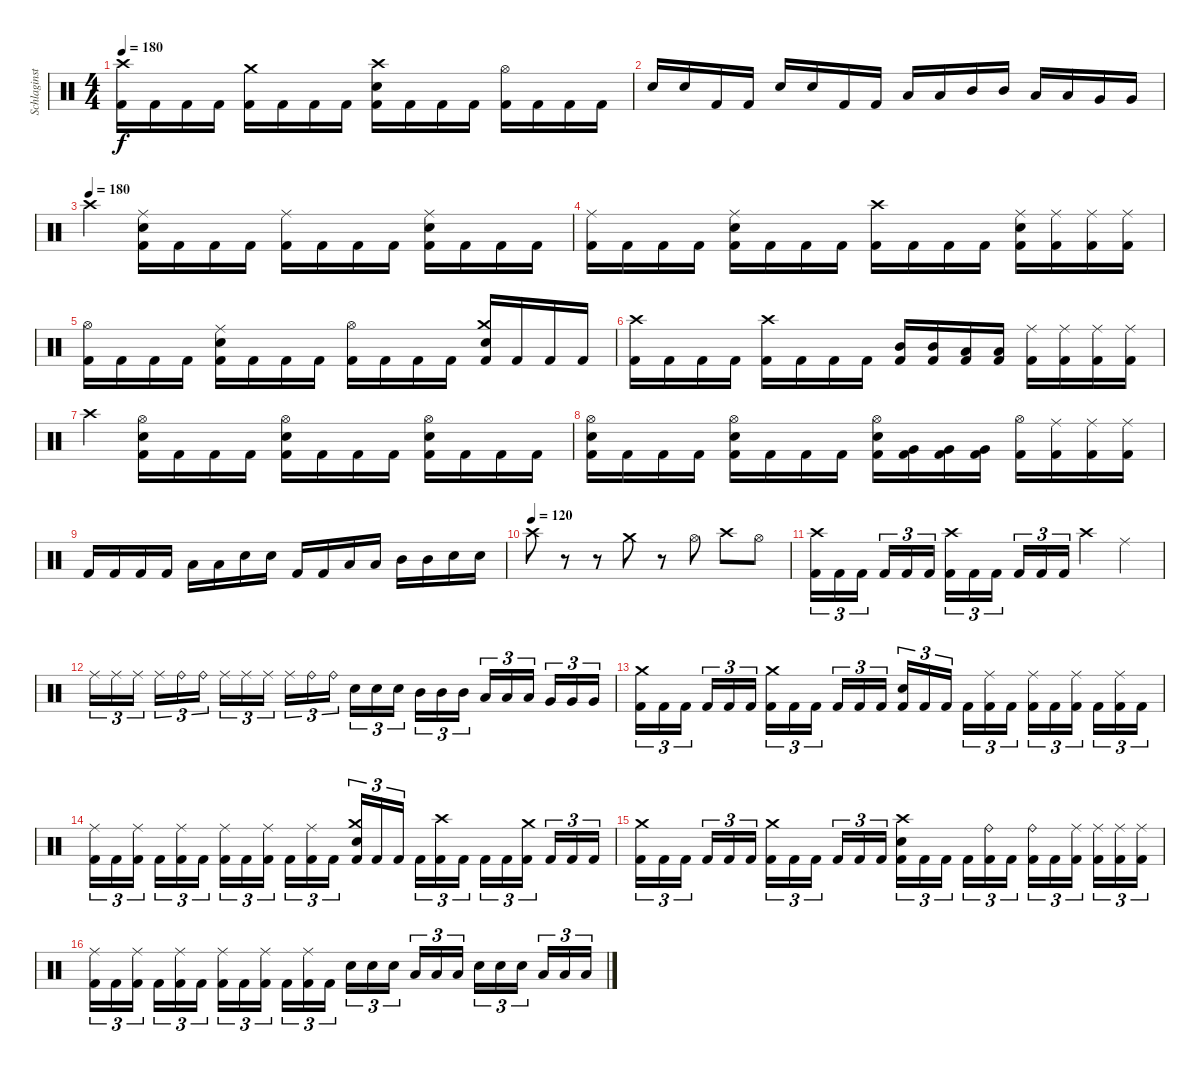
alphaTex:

\track ("Schlaginstrumente - Auswahl" "Schlaginst") {instrument percussion}
\staff {score}
\articulation defaults
\ts (4 4)
\tempo 180
\clef neutral
\ks c
("Crash high (hit)" "Kick (hit) 2").16{dy f} "Kick (hit) 2".16 "Kick (hit) 2".16 "Kick (hit) 2".16 ("Crash medium (hit)" "Kick (hit) 2").16 "Kick (hit) 2".16 "Kick (hit) 2".16 "Kick (hit) 2".16 ("Crash high (hit)" "Electric Snare (hit)" "Kick (hit) 2").16 "Kick (hit) 2".16 "Kick (hit) 2".16 "Kick (hit) 2".16 ("Hi-Hat (open)" "Kick (hit) 2").16 "Kick (hit) 2".16 "Kick (hit) 2".16 "Kick (hit) 2".16 |
"Electric Snare (hit)".16 "Electric Snare (hit)".16 "Kick (hit) 2".16 "Kick (hit) 2".16 "Electric Snare (hit)".16 "Electric Snare (hit)".16 "Kick (hit) 2".16 "Kick (hit) 2".16 "Low Tom (hit)".16 "Low Tom (hit)".16 "Mid Tom (hit)".16 "Mid Tom (hit)".16 "Low Tom (hit)".16 "Low Tom (hit)".16 "Very Low Tom (hit)".16 "Very Low Tom (hit)".16 |
\tempo (180)
"Crash high (hit)".4 ("Ride (middle)" "Electric Snare (hit)" "Kick (hit) 2").16 "Kick (hit) 2".16 "Kick (hit) 2".16 "Kick (hit) 2".16 ("Ride (middle)" "Kick (hit) 2").16 "Kick (hit) 2".16 "Kick (hit) 2".16 "Kick (hit) 2".16 ("Ride (middle)" "Electric Snare (hit)" "Kick (hit) 2").16 "Kick (hit) 2".16 "Kick (hit) 2".16 "Kick (hit) 2".16 |
("Ride (middle)" "Kick (hit) 2").16 "Kick (hit) 2".16 "Kick (hit) 2".16 "Kick (hit) 2".16 ("Ride (middle)" "Electric Snare (hit)" "Kick (hit) 2").16 "Kick (hit) 2".16 "Kick (hit) 2".16 "Kick (hit) 2".16 ("Crash high (hit)" "Kick (hit) 2").16 "Kick (hit) 2".16 "Kick (hit) 2".16 "Kick (hit) 2".16 ("Ride (middle)" "Electric Snare (hit)" "Kick (hit) 2").16 ("Ride (middle)" "Kick (hit) 2").16 ("Ride (middle)" "Kick (hit) 2").16 ("Ride (middle)" "Kick (hit) 2").16 |
("Hi-Hat (open)" "Kick (hit) 2").16 "Kick (hit) 2".16 "Kick (hit) 2".16 "Kick (hit) 2".16 ("Ride (middle)" "Electric Snare (hit)" "Kick (hit) 2").16 "Kick (hit) 2".16 "Kick (hit) 2".16 "Kick (hit) 2".16 ("Hi-Hat (open)" "Kick (hit) 2").16 "Kick (hit) 2".16 "Kick (hit) 2".16 "Kick (hit) 2".16 ("Crash medium (hit)" "Electric Snare (hit)" "Kick (hit) 2").16 "Kick (hit) 2".16 "Kick (hit) 2".16 "Kick (hit) 2".16 |
("Crash high (hit)" "Kick (hit) 2").16 "Kick (hit) 2".16 "Kick (hit) 2".16 "Kick (hit) 2".16 ("Crash high (hit)" "Kick (hit) 2").16 "Kick (hit) 2".16 "Kick (hit) 2".16 "Kick (hit) 2".16 ("Mid Tom (hit)" "Kick (hit) 2").16 ("Mid Tom (hit)" "Kick (hit) 2").16 ("Low Tom (hit)" "Kick (hit) 2").16 ("Low Tom (hit)" "Kick (hit) 2").16 ("Ride (middle)" "Kick (hit) 2").16 ("Ride (middle)" "Kick (hit) 2").16 ("Ride (middle)" "Kick (hit) 2").16 ("Ride (middle)" "Kick (hit) 2").16 |
"Crash high (hit)".4 ("Hi-Hat (open)" "Electric Snare (hit)" "Kick (hit) 2").16 "Kick (hit) 2".16 "Kick (hit) 2".16 "Kick (hit) 2".16 ("Hi-Hat (open)" "Electric Snare (hit)" "Kick (hit) 2").16 "Kick (hit) 2".16 "Kick (hit) 2".16 "Kick (hit) 2".16 ("Hi-Hat (open)" "Electric Snare (hit)" "Kick (hit) 2").16 "Kick (hit) 2".16 "Kick (hit) 2".16 "Kick (hit) 2".16 |
("Hi-Hat (open)" "Electric Snare (hit)" "Kick (hit) 2").16 "Kick (hit) 2".16 "Kick (hit) 2".16 "Kick (hit) 2".16 ("Hi-Hat (open)" "Electric Snare (hit)" "Kick (hit) 2").16 "Kick (hit) 2".16 "Kick (hit) 2".16 "Kick (hit) 2".16 ("Hi-Hat (open)" "Electric Snare (hit)" "Kick (hit) 2").16 ("Very Low Tom (hit)" "Kick (hit) 2").16 ("Very Low Tom (hit)" "Kick (hit) 2").16 ("Very Low Tom (hit)" "Kick (hit) 2").16 ("Hi-Hat (open)" "Kick (hit) 2").16 ("Ride (middle)" "Kick (hit) 2").16 ("Ride (middle)" "Kick (hit) 2").16 ("Ride (middle)" "Kick (hit) 2").16 |
"Kick (hit) 2".16 "Kick (hit) 2".16 "Kick (hit) 2".16 "Kick (hit) 2".16 "Low Tom (hit)".16 "Low Tom (hit)".16 "Electric Snare (hit)".16 "Electric Snare (hit)".16 "Kick (hit) 2".16 "Kick (hit) 2".16 "Low Tom (hit)".16 "Low Tom (hit)".16 "Mid Tom (hit)".16 "Mid Tom (hit)".16 "Electric Snare (hit)".16 "Electric Snare (hit)".16 |
\tempo (120)
"Crash high (hit)".8 r.8 r.8 "Crash medium (hit)".8 r.8 "Hi-Hat (open)".8 "Crash high (hit)".8 "Hi-Hat (open)".8 |
("Crash high (hit)" "Kick (hit) 2").16{tu (3 2)} "Kick (hit) 2".16{tu (3 2)} "Kick (hit) 2".16{tu (3 2) beam splitsecondary} "Kick (hit) 2".16{tu (3 2)} "Kick (hit) 2".16{tu (3 2)} "Kick (hit) 2".16{tu (3 2)} ("Crash high (hit)" "Kick (hit) 2").16{tu (3 2)} "Kick (hit) 2".16{tu (3 2)} "Kick (hit) 2".16{tu (3 2) beam splitsecondary} "Kick (hit) 2".16{tu (3 2)} "Kick (hit) 2".16{tu (3 2)} "Kick (hit) 2".16{tu (3 2)} "Crash high (hit)".4 "Ride (middle)".4 |
"Ride (middle)".16{tu (3 2)} "Ride (middle)".16{tu (3 2)} "Ride (middle)".16{tu (3 2) beam splitsecondary} "Ride (middle)".16{tu (3 2)} "Ride (bell)".16{tu (3 2)} "Ride (bell)".16{tu (3 2)} "Ride (middle)".16{tu (3 2)} "Ride (middle)".16{tu (3 2)} "Ride (middle)".16{tu (3 2) beam splitsecondary} "Ride (middle)".16{tu (3 2)} "Ride (bell)".16{tu (3 2)} "Ride (bell)".16{tu (3 2)} "Electric Snare (hit)".16{tu (3 2)} "Electric Snare (hit)".16{tu (3 2)} "Electric Snare (hit)".16{tu (3 2) beam splitsecondary} "Mid Tom (hit)".16{tu (3 2)} "Mid Tom (hit)".16{tu (3 2)} "Mid Tom (hit)".16{tu (3 2)} "Low Tom (hit)".16{tu (3 2)} "Low Tom (hit)".16{tu (3 2)} "Low Tom (hit)".16{tu (3 2) beam splitsecondary} "Very Low Tom (hit)".16{tu (3 2)} "Very Low Tom (hit)".16{tu (3 2)} "Very Low Tom (hit)".16{tu (3 2)} |
("Crash medium (hit)" "Kick (hit) 2").16{tu (3 2)} "Kick (hit) 2".16{tu (3 2)} "Kick (hit) 2".16{tu (3 2) beam splitsecondary} "Kick (hit) 2".16{tu (3 2)} "Kick (hit) 2".16{tu (3 2)} "Kick (hit) 2".16{tu (3 2)} ("Crash medium (hit)" "Kick (hit) 2").16{tu (3 2)} "Kick (hit) 2".16{tu (3 2)} "Kick (hit) 2".16{tu (3 2) beam splitsecondary} "Kick (hit) 2".16{tu (3 2)} "Kick (hit) 2".16{tu (3 2)} "Kick (hit) 2".16{tu (3 2)} ("Electric Snare (hit)" "Kick (hit) 2").16{tu (3 2)} "Kick (hit) 2".16{tu (3 2)} "Kick (hit) 2".16{tu (3 2) beam splitsecondary} "Kick (hit) 2".16{tu (3 2)} ("Ride (middle)" "Kick (hit) 2").16{tu (3 2)} "Kick (hit) 2".16{tu (3 2)} ("Ride (middle)" "Kick (hit) 2").16{tu (3 2)} "Kick (hit) 2".16{tu (3 2)} ("Ride (middle)" "Kick (hit) 2").16{tu (3 2) beam splitsecondary} "Kick (hit) 2".16{tu (3 2)} ("Ride (middle)" "Kick (hit) 2").16{tu (3 2)} "Kick (hit) 2".16{tu (3 2)} |
("Ride (middle)" "Kick (hit) 2").16{tu (3 2)} "Kick (hit) 2".16{tu (3 2)} ("Ride (middle)" "Kick (hit) 2").16{tu (3 2) beam splitsecondary} "Kick (hit) 2".16{tu (3 2)} ("Ride (middle)" "Kick (hit) 2").16{tu (3 2)} "Kick (hit) 2".16{tu (3 2)} ("Ride (middle)" "Kick (hit) 2").16{tu (3 2)} "Kick (hit) 2".16{tu (3 2)} ("Ride (middle)" "Kick (hit) 2").16{tu (3 2) beam splitsecondary} "Kick (hit) 2".16{tu (3 2)} ("Ride (middle)" "Kick (hit) 2").16{tu (3 2)} "Kick (hit) 2".16{tu (3 2)} ("Crash medium (hit)" "Electric Snare (hit)" "Kick (hit) 2").16{tu (3 2)} "Kick (hit) 2".16{tu (3 2)} "Kick (hit) 2".16{tu (3 2) beam splitsecondary} "Kick (hit) 2".16{tu (3 2)} ("Crash high (hit)" "Kick (hit) 2").16{tu (3 2)} "Kick (hit) 2".16{tu (3 2)} "Kick (hit) 2".16{tu (3 2)} "Kick (hit) 2".16{tu (3 2)} ("Crash medium (hit)" "Kick (hit) 2").16{tu (3 2) beam splitsecondary} "Kick (hit) 2".16{tu (3 2)} "Kick (hit) 2".16{tu (3 2)} "Kick (hit) 2".16{tu (3 2)} |
("Crash medium (hit)" "Kick (hit) 2").16{tu (3 2)} "Kick (hit) 2".16{tu (3 2)} "Kick (hit) 2".16{tu (3 2) beam splitsecondary} "Kick (hit) 2".16{tu (3 2)} "Kick (hit) 2".16{tu (3 2)} "Kick (hit) 2".16{tu (3 2)} ("Crash medium (hit)" "Kick (hit) 2").16{tu (3 2)} "Kick (hit) 2".16{tu (3 2)} "Kick (hit) 2".16{tu (3 2) beam splitsecondary} "Kick (hit) 2".16{tu (3 2)} "Kick (hit) 2".16{tu (3 2)} "Kick (hit) 2".16{tu (3 2)} ("Crash high (hit)" "Electric Snare (hit)" "Kick (hit) 2").16{tu (3 2)} "Kick (hit) 2".16{tu (3 2)} "Kick (hit) 2".16{tu (3 2) beam splitsecondary} "Kick (hit) 2".16{tu (3 2)} ("Ride (bell)" "Kick (hit) 2").16{tu (3 2)} "Kick (hit) 2".16{tu (3 2)} ("Ride (bell)" "Kick (hit) 2").16{tu (3 2)} "Kick (hit) 2".16{tu (3 2)} ("Ride (middle)" "Kick (hit) 2").16{tu (3 2) beam splitsecondary} ("Ride (middle)" "Kick (hit) 2").16{tu (3 2)} ("Ride (middle)" "Kick (hit) 2").16{tu (3 2)} ("Ride (middle)" "Kick (hit) 2").16{tu (3 2)} |
("Ride (middle)" "Kick (hit) 2").16{tu (3 2)} "Kick (hit) 2".16{tu (3 2)} ("Ride (middle)" "Kick (hit) 2").16{tu (3 2) beam splitsecondary} "Kick (hit) 2".16{tu (3 2)} ("Ride (middle)" "Kick (hit) 2").16{tu (3 2)} "Kick (hit) 2".16{tu (3 2)} ("Ride (middle)" "Kick (hit) 2").16{tu (3 2)} "Kick (hit) 2".16{tu (3 2)} ("Ride (middle)" "Kick (hit) 2").16{tu (3 2) beam splitsecondary} "Kick (hit) 2".16{tu (3 2)} ("Ride (middle)" "Kick (hit) 2").16{tu (3 2)} "Kick (hit) 2".16{tu (3 2)} "Electric Snare (hit)".16{tu (3 2)} "Electric Snare (hit)".16{tu (3 2)} "Electric Snare (hit)".16{tu (3 2) beam splitsecondary} "Low Tom (hit)".16{tu (3 2)} "Low Tom (hit)".16{tu (3 2)} "Low Tom (hit)".16{tu (3 2)} "Electric Snare (hit)".16{tu (3 2)} "Electric Snare (hit)".16{tu (3 2)} "Electric Snare (hit)".16{tu (3 2) beam splitsecondary} "Low Tom (hit)".16{tu (3 2)} "Low Tom (hit)".16{tu (3 2)} "Low Tom (hit)".16{tu (3 2)}
